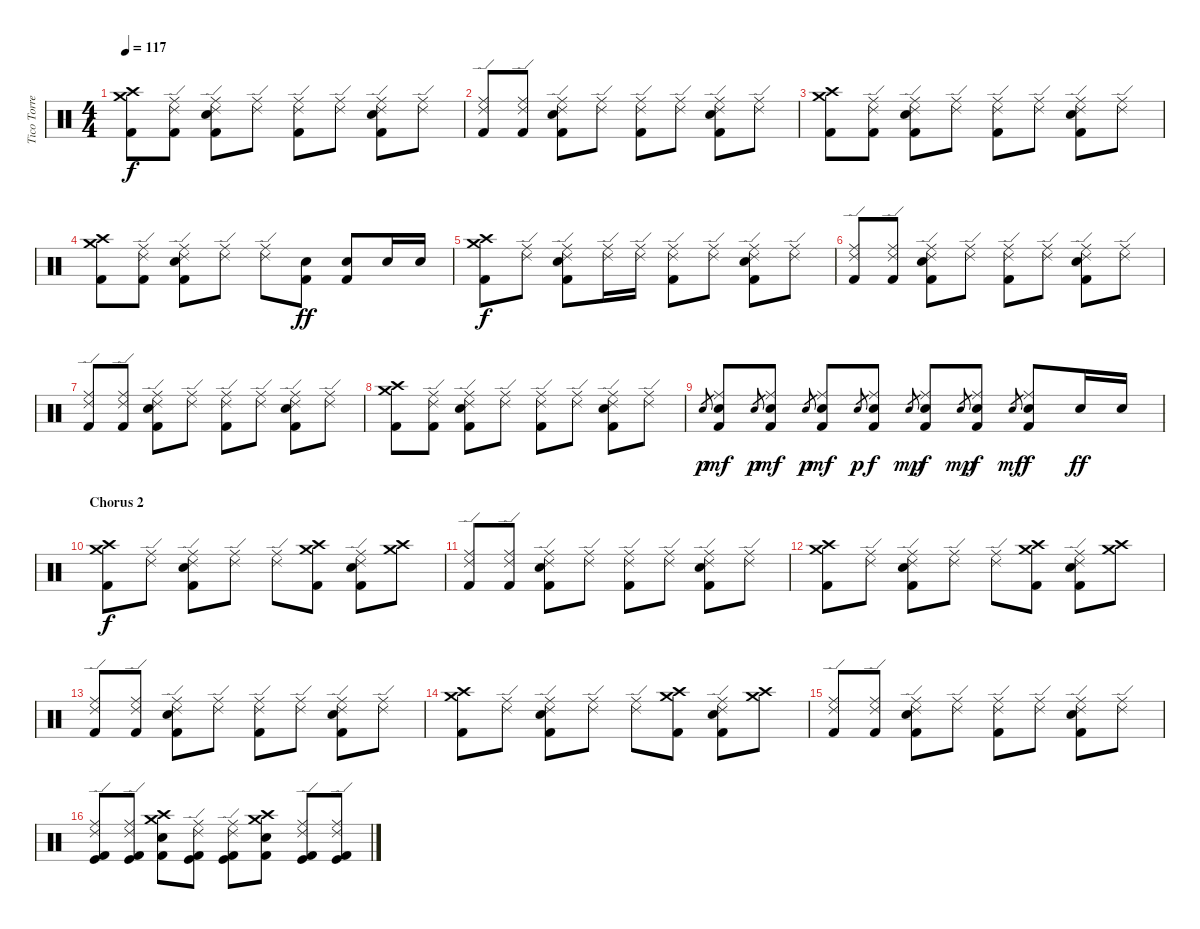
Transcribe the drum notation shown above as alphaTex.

\track ("Tico Torres" "Tico Torre") {instrument percussion}
\staff {score}
\articulation defaults
\ts (4 4)
\tempo 117
\clef neutral
\ks c
("Crash high (hit)" "Crash medium (hit)" "Kick (hit) 2").8{dy f} ("Ride (middle)" "Ride (edge) 2" "Kick (hit) 2").8 ("Ride (middle)" "Ride (edge) 2" "Electric Snare (hit)" "Kick (hit) 2").8 ("Ride (middle)" "Ride (edge) 2").8 ("Ride (middle)" "Ride (edge) 2" "Kick (hit) 2").8 ("Ride (middle)" "Ride (edge) 2").8 ("Ride (middle)" "Ride (edge) 2" "Electric Snare (hit)" "Kick (hit) 2").8 ("Ride (middle)" "Ride (edge) 2").8 |
("Ride (middle)" "Ride (edge) 2" "Kick (hit) 2").8 ("Ride (middle)" "Ride (edge) 2" "Kick (hit) 2").8 ("Ride (middle)" "Ride (edge) 2" "Electric Snare (hit)" "Kick (hit) 2").8 ("Ride (middle)" "Ride (edge) 2").8 ("Ride (middle)" "Ride (edge) 2" "Kick (hit) 2").8 ("Ride (middle)" "Ride (edge) 2").8 ("Ride (middle)" "Ride (edge) 2" "Electric Snare (hit)" "Kick (hit) 2").8 ("Ride (middle)" "Ride (edge) 2").8 |
("Crash high (hit)" "Crash medium (hit)" "Kick (hit) 2").8 ("Ride (middle)" "Ride (edge) 2" "Kick (hit) 2").8 ("Ride (middle)" "Ride (edge) 2" "Electric Snare (hit)" "Kick (hit) 2").8 ("Ride (middle)" "Ride (edge) 2").8 ("Ride (middle)" "Ride (edge) 2" "Kick (hit) 2").8 ("Ride (middle)" "Ride (edge) 2").8 ("Ride (middle)" "Ride (edge) 2" "Electric Snare (hit)" "Kick (hit) 2").8 ("Ride (middle)" "Ride (edge) 2").8 |
("Crash high (hit)" "Crash medium (hit)" "Kick (hit) 2").8 ("Ride (middle)" "Ride (edge) 2" "Kick (hit) 2").8 ("Ride (middle)" "Ride (edge) 2" "Electric Snare (hit)" "Kick (hit) 2").8 ("Ride (middle)" "Ride (edge) 2").8 ("Ride (middle)" "Ride (edge) 2").8 ("Electric Snare (hit)" "Kick (hit) 2").8{dy ff} ("Electric Snare (hit)" "Kick (hit) 2").8 "Electric Snare (hit)".16 "Electric Snare (hit)".16 |
("Crash high (hit)" "Crash medium (hit)" "Kick (hit) 2").8{dy f} ("Ride (middle)" "Ride (edge) 2").8 ("Ride (middle)" "Ride (edge) 2" "Electric Snare (hit)" "Kick (hit) 2").8 ("Ride (middle)" "Ride (edge) 2").16 ("Ride (middle)" "Ride (edge) 2").16 ("Ride (middle)" "Ride (edge) 2" "Kick (hit) 2").8 ("Ride (middle)" "Ride (edge) 2").8 ("Ride (middle)" "Ride (edge) 2" "Electric Snare (hit)" "Kick (hit) 2").8 ("Ride (middle)" "Ride (edge) 2").8 |
("Ride (middle)" "Ride (edge) 2" "Kick (hit) 2").8 ("Ride (middle)" "Ride (edge) 2" "Kick (hit) 2").8 ("Ride (middle)" "Ride (edge) 2" "Electric Snare (hit)" "Kick (hit) 2").8 ("Ride (middle)" "Ride (edge) 2").8 ("Ride (middle)" "Ride (edge) 2" "Kick (hit) 2").8 ("Ride (middle)" "Ride (edge) 2").8 ("Ride (middle)" "Ride (edge) 2" "Electric Snare (hit)" "Kick (hit) 2").8 ("Ride (middle)" "Ride (edge) 2").8 |
("Ride (middle)" "Ride (edge) 2" "Kick (hit) 2").8 ("Ride (middle)" "Ride (edge) 2" "Kick (hit) 2").8 ("Ride (middle)" "Ride (edge) 2" "Electric Snare (hit)" "Kick (hit) 2").8 ("Ride (middle)" "Ride (edge) 2").8 ("Ride (middle)" "Ride (edge) 2" "Kick (hit) 2").8 ("Ride (middle)" "Ride (edge) 2").8 ("Ride (middle)" "Ride (edge) 2" "Electric Snare (hit)" "Kick (hit) 2").8 ("Ride (middle)" "Ride (edge) 2").8 |
("Crash high (hit)" "Crash medium (hit)" "Kick (hit) 2").8 ("Ride (middle)" "Ride (edge) 2" "Kick (hit) 2").8 ("Ride (middle)" "Ride (edge) 2" "Electric Snare (hit)" "Kick (hit) 2").8 ("Ride (middle)" "Ride (edge) 2").8 ("Ride (middle)" "Ride (edge) 2" "Kick (hit) 2").8 ("Ride (middle)" "Ride (edge) 2").8 ("Ride (middle)" "Ride (edge) 2" "Electric Snare (hit)" "Kick (hit) 2").8 ("Ride (middle)" "Ride (edge) 2").8 |
"Electric Snare (hit)".8{gr dy p} ("Electric Snare (hit)" "Kick (hit) 2" "Ride (middle)").8{dy mf} "Electric Snare (hit)".8{gr dy p} ("Electric Snare (hit)" "Kick (hit) 2" "Ride (middle)").8{dy mf} "Electric Snare (hit)".8{gr dy p} ("Electric Snare (hit)" "Kick (hit) 2" "Ride (middle)").8{dy mf} "Electric Snare (hit)".8{gr dy p} ("Electric Snare (hit)" "Kick (hit) 2" "Ride (middle)").8{dy f} "Electric Snare (hit)".8{gr dy mp} ("Electric Snare (hit)" "Kick (hit) 2" "Ride (middle)").8{dy f} "Electric Snare (hit)".8{gr dy mp} ("Electric Snare (hit)" "Kick (hit) 2" "Ride (middle)").8{dy f} "Electric Snare (hit)".8{gr dy mf} ("Electric Snare (hit)" "Kick (hit) 2" "Ride (middle)").8{dy f} "Electric Snare (hit)".16{dy ff} "Electric Snare (hit)".16 |
\section ("" "Chorus 2")
("Crash high (hit)" "Crash medium (hit)" "Kick (hit) 2").8{dy f} ("Ride (middle)" "Ride (edge) 2").8 ("Ride (middle)" "Ride (edge) 2" "Electric Snare (hit)" "Kick (hit) 2").8 ("Ride (middle)" "Ride (edge) 2").8 ("Ride (middle)" "Ride (edge) 2").8 ("Crash high (hit)" "Crash medium (hit)" "Kick (hit) 2").8 ("Ride (middle)" "Ride (edge) 2" "Electric Snare (hit)" "Kick (hit) 2").8 ("Crash high (hit)" "Crash medium (hit)").8 |
("Ride (middle)" "Ride (edge) 2" "Kick (hit) 2").8 ("Ride (middle)" "Ride (edge) 2" "Kick (hit) 2").8 ("Ride (middle)" "Ride (edge) 2" "Electric Snare (hit)" "Kick (hit) 2").8 ("Ride (middle)" "Ride (edge) 2").8 ("Ride (middle)" "Ride (edge) 2" "Kick (hit) 2").8 ("Ride (middle)" "Ride (edge) 2").8 ("Ride (middle)" "Ride (edge) 2" "Electric Snare (hit)" "Kick (hit) 2").8 ("Ride (middle)" "Ride (edge) 2").8 |
("Crash high (hit)" "Crash medium (hit)" "Kick (hit) 2").8 ("Ride (middle)" "Ride (edge) 2").8 ("Ride (middle)" "Ride (edge) 2" "Electric Snare (hit)" "Kick (hit) 2").8 ("Ride (middle)" "Ride (edge) 2").8 ("Ride (middle)" "Ride (edge) 2").8 ("Crash high (hit)" "Crash medium (hit)" "Kick (hit) 2").8 ("Ride (middle)" "Ride (edge) 2" "Electric Snare (hit)" "Kick (hit) 2").8 ("Crash high (hit)" "Crash medium (hit)").8 |
("Ride (middle)" "Ride (edge) 2" "Kick (hit) 2").8 ("Ride (middle)" "Ride (edge) 2" "Kick (hit) 2").8 ("Ride (middle)" "Ride (edge) 2" "Electric Snare (hit)" "Kick (hit) 2").8 ("Ride (middle)" "Ride (edge) 2").8 ("Ride (middle)" "Ride (edge) 2" "Kick (hit) 2").8 ("Ride (middle)" "Ride (edge) 2").8 ("Ride (middle)" "Ride (edge) 2" "Electric Snare (hit)" "Kick (hit) 2").8 ("Ride (middle)" "Ride (edge) 2").8 |
("Crash high (hit)" "Crash medium (hit)" "Kick (hit) 2").8 ("Ride (middle)" "Ride (edge) 2").8 ("Ride (middle)" "Ride (edge) 2" "Electric Snare (hit)" "Kick (hit) 2").8 ("Ride (middle)" "Ride (edge) 2").8 ("Ride (middle)" "Ride (edge) 2").8 ("Crash high (hit)" "Crash medium (hit)" "Kick (hit) 2").8 ("Ride (middle)" "Ride (edge) 2" "Electric Snare (hit)" "Kick (hit) 2").8 ("Crash high (hit)" "Crash medium (hit)").8 |
("Ride (middle)" "Ride (edge) 2" "Kick (hit) 2").8 ("Ride (middle)" "Ride (edge) 2" "Kick (hit) 2").8 ("Ride (middle)" "Ride (edge) 2" "Electric Snare (hit)" "Kick (hit) 2").8 ("Ride (middle)" "Ride (edge) 2").8 ("Ride (middle)" "Ride (edge) 2" "Kick (hit) 2").8 ("Ride (middle)" "Ride (edge) 2").8 ("Ride (middle)" "Ride (edge) 2" "Electric Snare (hit)" "Kick (hit) 2").8 ("Ride (middle)" "Ride (edge) 2").8 |
("Ride (middle)" "Ride (edge) 2" "Kick (hit)" "Kick (hit) 2").8 ("Ride (middle)" "Ride (edge) 2" "Kick (hit)" "Kick (hit) 2").8 ("Crash high (hit)" "Crash medium (hit)" "Electric Snare (hit)" "Kick (hit) 2").8 ("Ride (middle)" "Ride (edge) 2" "Kick (hit)" "Kick (hit) 2").8 ("Ride (middle)" "Ride (edge) 2" "Kick (hit)" "Kick (hit) 2").8 ("Crash high (hit)" "Crash medium (hit)" "Electric Snare (hit)" "Kick (hit) 2").8 ("Ride (middle)" "Ride (edge) 2" "Kick (hit)" "Kick (hit) 2").8 ("Ride (middle)" "Ride (edge) 2" "Kick (hit)" "Kick (hit) 2").8
